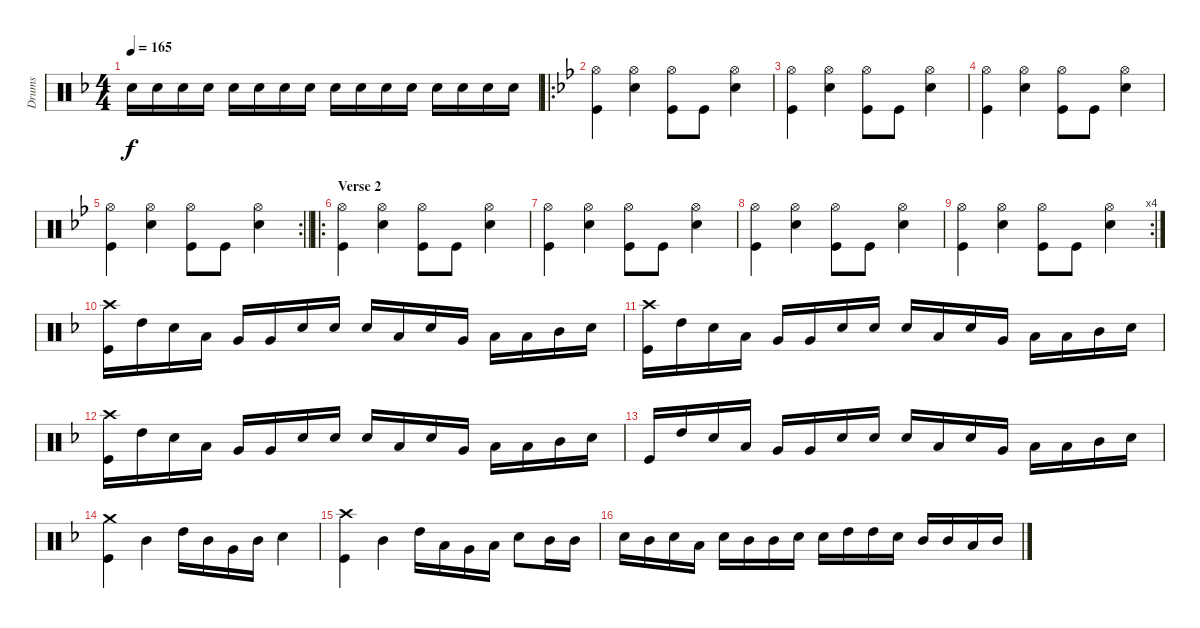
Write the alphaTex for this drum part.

\track ("Drums" "Drums") {instrument percussion}
\staff {score}
\articulation defaults
\ts (4 4)
\tempo 165
\clef neutral
\ks f "Snare (hit) 2".16{dy f} "Snare (hit) 2".16 "Snare (hit) 2".16 "Snare (hit) 2".16 "Snare (hit) 2".16 "Snare (hit) 2".16 "Snare (hit) 2".16 "Snare (hit) 2".16 "Snare (hit) 2".16 "Snare (hit) 2".16 "Snare (hit) 2".16 "Snare (hit) 2".16 "Snare (hit) 2".16 "Snare (hit) 2".16 "Snare (hit) 2".16 "Snare (hit) 2".16
|
\ro
\ks bb
("Hi-Hat (open)" "Kick (hit)").4 ("Hi-Hat (open)" "Snare (hit) 2").4 ("Hi-Hat (open)" "Kick (hit)").8 "Kick (hit)".8 ("Hi-Hat (open)" "Snare (hit) 2").4 |
("Hi-Hat (open)" "Kick (hit)").4 ("Hi-Hat (open)" "Snare (hit) 2").4 ("Hi-Hat (open)" "Kick (hit)").8 "Kick (hit)".8 ("Hi-Hat (open)" "Snare (hit) 2").4 |
("Hi-Hat (open)" "Kick (hit)").4 ("Hi-Hat (open)" "Snare (hit) 2").4 ("Hi-Hat (open)" "Kick (hit)").8 "Kick (hit)".8 ("Hi-Hat (open)" "Snare (hit) 2").4 |
\rc 2
\barLineRight lightlight
("Hi-Hat (open)" "Kick (hit)").4 ("Hi-Hat (open)" "Snare (hit) 2").4 ("Hi-Hat (open)" "Kick (hit)").8 "Kick (hit)".8 ("Hi-Hat (open)" "Snare (hit) 2").4 |
\ro
\section ("" "Verse 2")
("Hi-Hat (open)" "Kick (hit)").4 ("Hi-Hat (open)" "Snare (hit) 2").4 ("Hi-Hat (open)" "Kick (hit)").8 "Kick (hit)".8 ("Hi-Hat (open)" "Snare (hit) 2").4 |
("Hi-Hat (open)" "Kick (hit)").4 ("Hi-Hat (open)" "Snare (hit) 2").4 ("Hi-Hat (open)" "Kick (hit)").8 "Kick (hit)".8 ("Hi-Hat (open)" "Snare (hit) 2").4 |
("Hi-Hat (open)" "Kick (hit)").4 ("Hi-Hat (open)" "Snare (hit) 2").4 ("Hi-Hat (open)" "Kick (hit)").8 "Kick (hit)".8 ("Hi-Hat (open)" "Snare (hit) 2").4 |
\rc 4
("Hi-Hat (open)" "Kick (hit)").4 ("Hi-Hat (open)" "Snare (hit) 2").4 ("Hi-Hat (open)" "Kick (hit)").8 "Kick (hit)".8 ("Hi-Hat (open)" "Snare (hit) 2").4 |
\ks f
("Crash high (hit)" "Kick (hit)").16 "High Tom (hit)".16 "Snare (hit) 2".16 "Low Tom (hit)".16 "Very Low Tom (hit)".16 "Very Low Tom (hit)".16 "Snare (hit) 2".16 "Snare (hit) 2".16 "Snare (hit) 2".16 "Low Floor Tom (hit)".16 "Snare (hit) 2".16 "Very Low Tom (hit)".16 "Low Tom (hit)".16 "Low Tom (hit)".16 "Mid Tom (hit)".16 "Snare (hit) 2".16 |
("Crash high (hit)" "Kick (hit)").16 "High Tom (hit)".16 "Snare (hit) 2".16 "Low Tom (hit)".16 "Very Low Tom (hit)".16 "Very Low Tom (hit)".16 "Snare (hit) 2".16 "Snare (hit) 2".16 "Snare (hit) 2".16 "Low Floor Tom (hit)".16 "Snare (hit) 2".16 "Very Low Tom (hit)".16 "Low Tom (hit)".16 "Low Tom (hit)".16 "Mid Tom (hit)".16 "Snare (hit) 2".16 |
("Crash high (hit)" "Kick (hit)").16 "High Tom (hit)".16 "Snare (hit) 2".16 "Low Tom (hit)".16 "Very Low Tom (hit)".16 "Very Low Tom (hit)".16 "Snare (hit) 2".16 "Snare (hit) 2".16 "Snare (hit) 2".16 "Low Floor Tom (hit)".16 "Snare (hit) 2".16 "Very Low Tom (hit)".16 "Low Tom (hit)".16 "Low Tom (hit)".16 "Mid Tom (hit)".16 "Snare (hit) 2".16 |
"Kick (hit)".16 "High Tom (hit)".16 "Snare (hit) 2".16 "Low Tom (hit)".16 "Very Low Tom (hit)".16 "Very Low Tom (hit)".16 "Snare (hit) 2".16 "Snare (hit) 2".16 "Snare (hit) 2".16 "Low Floor Tom (hit)".16 "Snare (hit) 2".16 "Very Low Tom (hit)".16 "Low Tom (hit)".16 "Low Tom (hit)".16 "Mid Tom (hit)".16 "Snare (hit) 2".16 |
("Crash medium (hit)" "Kick (hit)").4 "Mid Tom (hit)".4 "High Tom (hit)".16 "Mid Tom (hit)".16 "Very Low Tom (hit)".16 "Mid Tom (hit)".16 "Snare (hit) 2".4 |
("Crash high (hit)" "Kick (hit)").4 "Mid Tom (hit)".4 "High Tom (hit)".16 "Low Tom (hit)".16 "Very Low Tom (hit)".16 "Low Tom (hit)".16 "Snare (hit) 2".8 "Mid Tom (hit)".16 "Mid Tom (hit)".16 |
"Snare (hit) 2".16 "Mid Tom (hit)".16 "Snare (hit) 2".16 "Low Tom (hit)".16 "Snare (hit) 2".16 "Mid Tom (hit)".16 "Mid Tom (hit)".16 "Snare (hit) 2".16 "Snare (hit) 2".16 "High Tom (hit)".16 "High Tom (hit)".16 "Snare (hit) 2".16 "Mid Tom (hit)".16 "Mid Tom (hit)".16 "Low Tom (hit)".16 "Mid Tom (hit)".16
